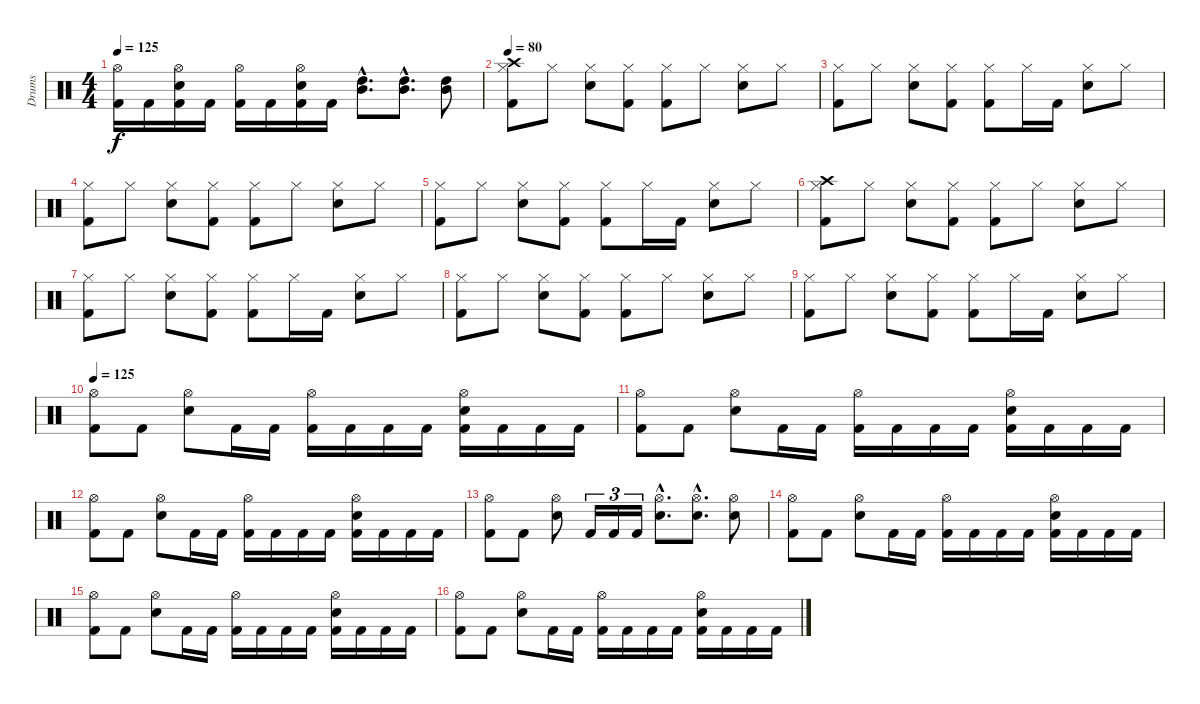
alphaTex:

\track ("Drums" "Drums") {instrument percussion}
\staff {score}
\articulation defaults
\ts (4 4)
\tempo 125
\clef neutral
\ks c
("Hi-Hat (open)" "Kick (hit) 2").16{dy f} "Kick (hit) 2".16 ("Hi-Hat (open)" "Electric Snare (hit)" "Kick (hit) 2").16 "Kick (hit) 2".16 ("Hi-Hat (open)" "Kick (hit) 2").16 "Kick (hit) 2".16 ("Hi-Hat (open)" "Electric Snare (hit)" "Kick (hit) 2").16 "Kick (hit) 2".16 ("High Tom (hit)"{hac} "Mid Tom (hit)"{hac}).8{d} ("High Tom (hit)"{hac} "Mid Tom (hit)"{hac}).8{d} ("High Tom (hit)" "Mid Tom (hit)").8 |
\tempo 80
("Crash high (hit)" "Hi-Hat (closed)" "Kick (hit) 2").8 "Hi-Hat (closed)".8 ("Hi-Hat (closed)" "Electric Snare (hit)").8 ("Hi-Hat (closed)" "Kick (hit) 2").8 ("Hi-Hat (closed)" "Kick (hit) 2").8 "Hi-Hat (closed)".8 ("Hi-Hat (closed)" "Electric Snare (hit)").8 "Hi-Hat (closed)".8 |
("Hi-Hat (closed)" "Kick (hit) 2").8 "Hi-Hat (closed)".8 ("Hi-Hat (closed)" "Electric Snare (hit)").8 ("Hi-Hat (closed)" "Kick (hit) 2").8 ("Hi-Hat (closed)" "Kick (hit) 2").8 "Hi-Hat (closed)".16 "Kick (hit) 2".16 ("Hi-Hat (closed)" "Electric Snare (hit)").8 "Hi-Hat (closed)".8 |
("Hi-Hat (closed)" "Kick (hit) 2").8 "Hi-Hat (closed)".8 ("Hi-Hat (closed)" "Electric Snare (hit)").8 ("Hi-Hat (closed)" "Kick (hit) 2").8 ("Hi-Hat (closed)" "Kick (hit) 2").8 "Hi-Hat (closed)".8 ("Hi-Hat (closed)" "Electric Snare (hit)").8 "Hi-Hat (closed)".8 |
("Hi-Hat (closed)" "Kick (hit) 2").8 "Hi-Hat (closed)".8 ("Hi-Hat (closed)" "Electric Snare (hit)").8 ("Hi-Hat (closed)" "Kick (hit) 2").8 ("Hi-Hat (closed)" "Kick (hit) 2").8 "Hi-Hat (closed)".16 "Kick (hit) 2".16 ("Hi-Hat (closed)" "Electric Snare (hit)").8 "Hi-Hat (closed)".8 |
("Crash high (hit)" "Hi-Hat (closed)" "Kick (hit) 2").8 "Hi-Hat (closed)".8 ("Hi-Hat (closed)" "Electric Snare (hit)").8 ("Hi-Hat (closed)" "Kick (hit) 2").8 ("Hi-Hat (closed)" "Kick (hit) 2").8 "Hi-Hat (closed)".8 ("Hi-Hat (closed)" "Electric Snare (hit)").8 "Hi-Hat (closed)".8 |
("Hi-Hat (closed)" "Kick (hit) 2").8 "Hi-Hat (closed)".8 ("Hi-Hat (closed)" "Electric Snare (hit)").8 ("Hi-Hat (closed)" "Kick (hit) 2").8 ("Hi-Hat (closed)" "Kick (hit) 2").8 "Hi-Hat (closed)".16 "Kick (hit) 2".16 ("Hi-Hat (closed)" "Electric Snare (hit)").8 "Hi-Hat (closed)".8 |
("Hi-Hat (closed)" "Kick (hit) 2").8 "Hi-Hat (closed)".8 ("Hi-Hat (closed)" "Electric Snare (hit)").8 ("Hi-Hat (closed)" "Kick (hit) 2").8 ("Hi-Hat (closed)" "Kick (hit) 2").8 "Hi-Hat (closed)".8 ("Hi-Hat (closed)" "Electric Snare (hit)").8 "Hi-Hat (closed)".8 |
("Hi-Hat (closed)" "Kick (hit) 2").8 "Hi-Hat (closed)".8 ("Hi-Hat (closed)" "Electric Snare (hit)").8 ("Hi-Hat (closed)" "Kick (hit) 2").8 ("Hi-Hat (closed)" "Kick (hit) 2").8 "Hi-Hat (closed)".16 "Kick (hit) 2".16 ("Hi-Hat (closed)" "Electric Snare (hit)").8 "Hi-Hat (closed)".8 |
\tempo 125
("Hi-Hat (open)" "Kick (hit) 2").8 "Kick (hit) 2".8 ("Hi-Hat (open)" "Electric Snare (hit)").8 "Kick (hit) 2".16 "Kick (hit) 2".16 ("Hi-Hat (open)" "Kick (hit) 2").16 "Kick (hit) 2".16 "Kick (hit) 2".16 "Kick (hit) 2".16 ("Hi-Hat (open)" "Electric Snare (hit)" "Kick (hit) 2").16 "Kick (hit) 2".16 "Kick (hit) 2".16 "Kick (hit) 2".16 |
("Hi-Hat (open)" "Kick (hit) 2").8 "Kick (hit) 2".8 ("Hi-Hat (open)" "Electric Snare (hit)").8 "Kick (hit) 2".16 "Kick (hit) 2".16 ("Hi-Hat (open)" "Kick (hit) 2").16 "Kick (hit) 2".16 "Kick (hit) 2".16 "Kick (hit) 2".16 ("Hi-Hat (open)" "Electric Snare (hit)" "Kick (hit) 2").16 "Kick (hit) 2".16 "Kick (hit) 2".16 "Kick (hit) 2".16 |
("Hi-Hat (open)" "Kick (hit) 2").8 "Kick (hit) 2".8 ("Hi-Hat (open)" "Electric Snare (hit)").8 "Kick (hit) 2".16 "Kick (hit) 2".16 ("Hi-Hat (open)" "Kick (hit) 2").16 "Kick (hit) 2".16 "Kick (hit) 2".16 "Kick (hit) 2".16 ("Hi-Hat (open)" "Electric Snare (hit)" "Kick (hit) 2").16 "Kick (hit) 2".16 "Kick (hit) 2".16 "Kick (hit) 2".16 |
("Hi-Hat (open)" "Kick (hit) 2").8 "Kick (hit) 2".8 ("Hi-Hat (open)" "Electric Snare (hit)").8 "Kick (hit) 2".16{tu (3 2)} "Kick (hit) 2".16{tu (3 2)} "Kick (hit) 2".16{tu (3 2)} ("Hi-Hat (open)"{hac} "Electric Snare (hit)"{hac}).8{d} ("Hi-Hat (open)"{hac} "Electric Snare (hit)"{hac}).8{d} ("Hi-Hat (open)" "Electric Snare (hit)").8 |
("Hi-Hat (open)" "Kick (hit) 2").8 "Kick (hit) 2".8 ("Hi-Hat (open)" "Electric Snare (hit)").8 "Kick (hit) 2".16 "Kick (hit) 2".16 ("Hi-Hat (open)" "Kick (hit) 2").16 "Kick (hit) 2".16 "Kick (hit) 2".16 "Kick (hit) 2".16 ("Hi-Hat (open)" "Electric Snare (hit)" "Kick (hit) 2").16 "Kick (hit) 2".16 "Kick (hit) 2".16 "Kick (hit) 2".16 |
("Hi-Hat (open)" "Kick (hit) 2").8 "Kick (hit) 2".8 ("Hi-Hat (open)" "Electric Snare (hit)").8 "Kick (hit) 2".16 "Kick (hit) 2".16 ("Hi-Hat (open)" "Kick (hit) 2").16 "Kick (hit) 2".16 "Kick (hit) 2".16 "Kick (hit) 2".16 ("Hi-Hat (open)" "Electric Snare (hit)" "Kick (hit) 2").16 "Kick (hit) 2".16 "Kick (hit) 2".16 "Kick (hit) 2".16 |
("Hi-Hat (open)" "Kick (hit) 2").8 "Kick (hit) 2".8 ("Hi-Hat (open)" "Electric Snare (hit)").8 "Kick (hit) 2".16 "Kick (hit) 2".16 ("Hi-Hat (open)" "Kick (hit) 2").16 "Kick (hit) 2".16 "Kick (hit) 2".16 "Kick (hit) 2".16 ("Hi-Hat (open)" "Electric Snare (hit)" "Kick (hit) 2").16 "Kick (hit) 2".16 "Kick (hit) 2".16 "Kick (hit) 2".16
